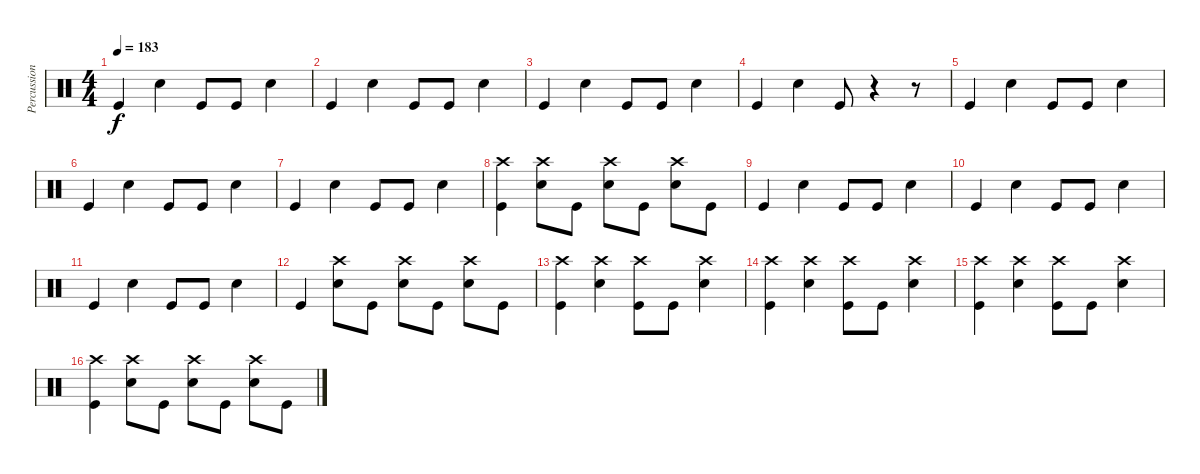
\track ("Percussion" "Percussion") {instrument percussion}
\staff {score}
\articulation defaults
\ts (4 4)
\tempo 183
\clef neutral
\ks c "Kick (hit)".4{dy f} "Electric Snare (hit)".4 "Kick (hit)".8 "Kick (hit)".8 "Electric Snare (hit)".4
|
"Kick (hit)".4 "Electric Snare (hit)".4 "Kick (hit)".8 "Kick (hit)".8 "Electric Snare (hit)".4 |
"Kick (hit)".4 "Electric Snare (hit)".4 "Kick (hit)".8 "Kick (hit)".8 "Electric Snare (hit)".4 |
"Kick (hit)".4 "Electric Snare (hit)".4 "Kick (hit)".8 r.4 r.8 |
"Kick (hit)".4 "Electric Snare (hit)".4 "Kick (hit)".8 "Kick (hit)".8 "Electric Snare (hit)".4 |
"Kick (hit)".4 "Electric Snare (hit)".4 "Kick (hit)".8 "Kick (hit)".8 "Electric Snare (hit)".4 |
"Kick (hit)".4 "Electric Snare (hit)".4 "Kick (hit)".8 "Kick (hit)".8 "Electric Snare (hit)".4 |
("Crash high (hit)" "Kick (hit)").4 ("Crash high (hit)" "Electric Snare (hit)").8 "Kick (hit)".8 ("Crash high (hit)" "Electric Snare (hit)").8 "Kick (hit)".8 ("Crash high (hit)" "Electric Snare (hit)").8 "Kick (hit)".8 |
"Kick (hit)".4 "Electric Snare (hit)".4 "Kick (hit)".8 "Kick (hit)".8 "Electric Snare (hit)".4 |
"Kick (hit)".4 "Electric Snare (hit)".4 "Kick (hit)".8 "Kick (hit)".8 "Electric Snare (hit)".4 |
"Kick (hit)".4 "Electric Snare (hit)".4 "Kick (hit)".8 "Kick (hit)".8 "Electric Snare (hit)".4 |
"Kick (hit)".4 ("Crash high (hit)" "Electric Snare (hit)").8 "Kick (hit)".8 ("Crash high (hit)" "Electric Snare (hit)").8 "Kick (hit)".8 ("Crash high (hit)" "Electric Snare (hit)").8 "Kick (hit)".8 |
("Crash high (hit)" "Kick (hit)").4 ("Crash high (hit)" "Electric Snare (hit)").4 ("Crash high (hit)" "Kick (hit)").8 "Kick (hit)".8 ("Crash high (hit)" "Electric Snare (hit)").4 |
("Crash high (hit)" "Kick (hit)").4 ("Crash high (hit)" "Electric Snare (hit)").4 ("Crash high (hit)" "Kick (hit)").8 "Kick (hit)".8 ("Crash high (hit)" "Electric Snare (hit)").4 |
("Crash high (hit)" "Kick (hit)").4 ("Crash high (hit)" "Electric Snare (hit)").4 ("Crash high (hit)" "Kick (hit)").8 "Kick (hit)".8 ("Crash high (hit)" "Electric Snare (hit)").4 |
("Crash high (hit)" "Kick (hit)").4 ("Crash high (hit)" "Electric Snare (hit)").8 "Kick (hit)".8 ("Crash high (hit)" "Electric Snare (hit)").8 "Kick (hit)".8 ("Crash high (hit)" "Electric Snare (hit)").8 "Kick (hit)".8
